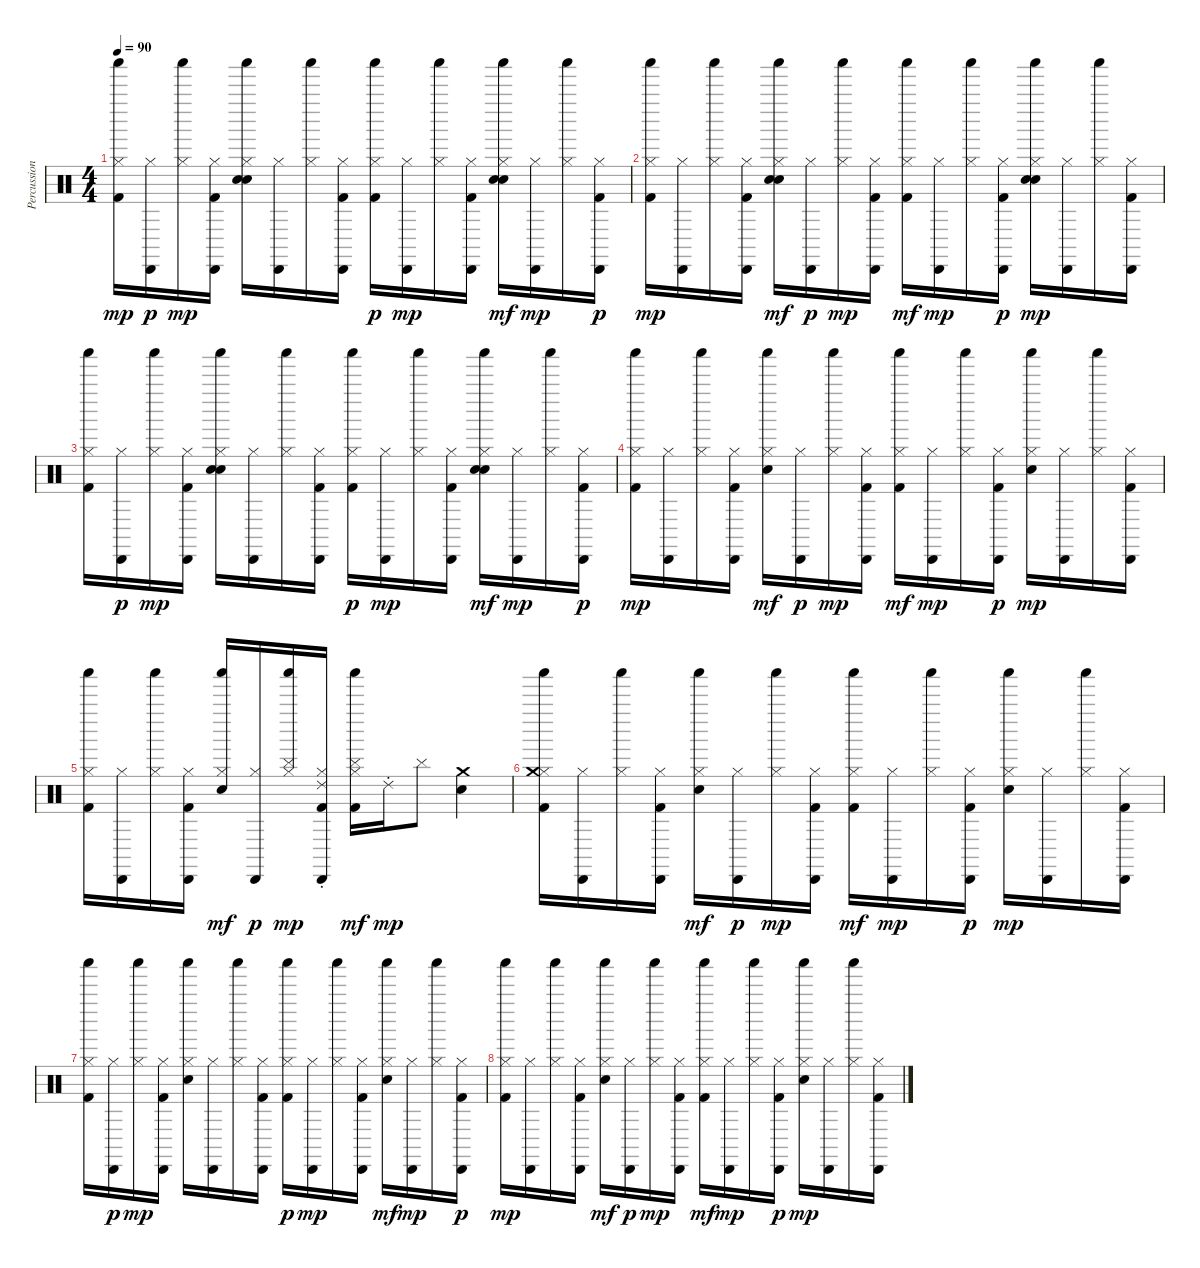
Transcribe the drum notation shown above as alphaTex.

\track ("Percussions" "Percussion") {instrument percussion}
\staff {score}
\articulation defaults
\ts (4 4)
\tempo 90
\clef neutral
\ks c
("Kick (hit) 2" "Hi-Hat (closed)" "Shaker (hit)").16{dy mp} ("Hi-Hat (closed)" "Cabasa (hit)").16{dy p} ("Hi-Hat (closed)" "Shaker (hit)").16{dy mp} ("Kick (hit) 2" "Hi-Hat (closed)" "Cabasa (hit)").16 ("Hand Clap (hit)" "Electric Snare (hit)" "Hi-Hat (closed)" "Shaker (hit)").16 ("Hi-Hat (closed)" "Cabasa (hit)").16 ("Hi-Hat (closed)" "Shaker (hit)").16 ("Kick (hit) 2" "Hi-Hat (closed)" "Cabasa (hit)").16 ("Kick (hit) 2" "Hi-Hat (closed)" "Shaker (hit)").16{dy p} ("Hi-Hat (closed)" "Cabasa (hit)").16{dy mp} ("Hi-Hat (closed)" "Shaker (hit)").16 ("Kick (hit) 2" "Hi-Hat (closed)" "Cabasa (hit)").16 ("Hand Clap (hit)" "Electric Snare (hit)" "Hi-Hat (closed)" "Shaker (hit)").16{dy mf} ("Hi-Hat (closed)" "Cabasa (hit)").16{dy mp} ("Hi-Hat (closed)" "Shaker (hit)").16 ("Kick (hit) 2" "Hi-Hat (closed)" "Cabasa (hit)").16{dy p} |
("Kick (hit) 2" "Hi-Hat (closed)" "Shaker (hit)").16{dy mp} ("Hi-Hat (closed)" "Cabasa (hit)").16 ("Hi-Hat (closed)" "Shaker (hit)").16 ("Kick (hit) 2" "Hi-Hat (closed)" "Cabasa (hit)").16 ("Hand Clap (hit)" "Electric Snare (hit)" "Hi-Hat (closed)" "Shaker (hit)").16{dy mf} ("Hi-Hat (closed)" "Cabasa (hit)").16{dy p} ("Hi-Hat (closed)" "Shaker (hit)").16{dy mp} ("Kick (hit) 2" "Hi-Hat (closed)" "Cabasa (hit)").16 ("Kick (hit) 2" "Hi-Hat (closed)" "Shaker (hit)").16{dy mf} ("Hi-Hat (closed)" "Cabasa (hit)").16{dy mp} ("Hi-Hat (closed)" "Shaker (hit)").16 ("Kick (hit) 2" "Hi-Hat (closed)" "Cabasa (hit)").16{dy p} ("Hand Clap (hit)" "Electric Snare (hit)" "Hi-Hat (closed)" "Shaker (hit)").16{dy mp} ("Hi-Hat (closed)" "Cabasa (hit)").16 ("Hi-Hat (closed)" "Shaker (hit)").16 ("Kick (hit) 2" "Hi-Hat (closed)" "Cabasa (hit)").16 |
("Kick (hit) 2" "Hi-Hat (closed)" "Shaker (hit)").16 ("Hi-Hat (closed)" "Cabasa (hit)").16{dy p} ("Hi-Hat (closed)" "Shaker (hit)").16{dy mp} ("Kick (hit) 2" "Hi-Hat (closed)" "Cabasa (hit)").16 ("Hand Clap (hit)" "Electric Snare (hit)" "Hi-Hat (closed)" "Shaker (hit)").16 ("Hi-Hat (closed)" "Cabasa (hit)").16 ("Hi-Hat (closed)" "Shaker (hit)").16 ("Kick (hit) 2" "Hi-Hat (closed)" "Cabasa (hit)").16 ("Kick (hit) 2" "Hi-Hat (closed)" "Shaker (hit)").16{dy p} ("Hi-Hat (closed)" "Cabasa (hit)").16{dy mp} ("Hi-Hat (closed)" "Shaker (hit)").16 ("Kick (hit) 2" "Hi-Hat (closed)" "Cabasa (hit)").16 ("Hand Clap (hit)" "Electric Snare (hit)" "Hi-Hat (closed)" "Shaker (hit)").16{dy mf} ("Hi-Hat (closed)" "Cabasa (hit)").16{dy mp} ("Hi-Hat (closed)" "Shaker (hit)").16 ("Kick (hit) 2" "Hi-Hat (closed)" "Cabasa (hit)").16{dy p} |
("Kick (hit) 2" "Hi-Hat (closed)" "Shaker (hit)").16{dy mp} ("Hi-Hat (closed)" "Cabasa (hit)").16 ("Hi-Hat (closed)" "Shaker (hit)").16 ("Kick (hit) 2" "Hi-Hat (closed)" "Cabasa (hit)").16 ("Electric Snare (hit)" "Hi-Hat (closed)" "Shaker (hit)").16{dy mf} ("Hi-Hat (closed)" "Cabasa (hit)").16{dy p} ("Hi-Hat (closed)" "Shaker (hit)").16{dy mp} ("Kick (hit) 2" "Hi-Hat (closed)" "Cabasa (hit)").16 ("Kick (hit) 2" "Hi-Hat (closed)" "Shaker (hit)").16{dy mf} ("Hi-Hat (closed)" "Cabasa (hit)").16{dy mp} ("Hi-Hat (closed)" "Shaker (hit)").16 ("Kick (hit) 2" "Hi-Hat (closed)" "Cabasa (hit)").16{dy p} ("Electric Snare (hit)" "Hi-Hat (closed)" "Shaker (hit)").16{dy mp} ("Hi-Hat (closed)" "Cabasa (hit)").16 ("Hi-Hat (closed)" "Shaker (hit)").16 ("Kick (hit) 2" "Hi-Hat (closed)" "Cabasa (hit)").16 |
("Kick (hit) 2" "Hi-Hat (closed)" "Shaker (hit)").16 ("Hi-Hat (closed)" "Cabasa (hit)").16 ("Hi-Hat (closed)" "Shaker (hit)").16 ("Kick (hit) 2" "Hi-Hat (closed)" "Cabasa (hit)").16 ("Electric Snare (hit)" "Hi-Hat (closed)" "Shaker (hit)").16{dy mf} ("Hi-Hat (closed)" "Cabasa (hit)").16{dy p} ("Cymbal (hit)" "Hi-Hat (closed)" "Shaker (hit)").16{dy mp} ("Ride (choke) 2" "Kick (hit) 2" "Hi-Hat (closed)" "Cabasa (hit)").16 ("Cymbal (hit)" "Kick (hit) 2" "Hi-Hat (closed)" "Shaker (hit)").16{dy mf} "Ride (choke) 2".16{dy mp} "Cymbal (hit)".8 ("Electric Snare (hit)" "Crash medium (hit)").4 |
("Kick (hit) 2" "Hi-Hat (closed)" "Crash medium (hit)" "Shaker (hit)").16 ("Hi-Hat (closed)" "Cabasa (hit)").16 ("Hi-Hat (closed)" "Shaker (hit)").16 ("Kick (hit) 2" "Hi-Hat (closed)" "Cabasa (hit)").16 ("Electric Snare (hit)" "Hi-Hat (closed)" "Shaker (hit)").16{dy mf} ("Hi-Hat (closed)" "Cabasa (hit)").16{dy p} ("Hi-Hat (closed)" "Shaker (hit)").16{dy mp} ("Kick (hit) 2" "Hi-Hat (closed)" "Cabasa (hit)").16 ("Kick (hit) 2" "Hi-Hat (closed)" "Shaker (hit)").16{dy mf} ("Hi-Hat (closed)" "Cabasa (hit)").16{dy mp} ("Hi-Hat (closed)" "Shaker (hit)").16 ("Kick (hit) 2" "Hi-Hat (closed)" "Cabasa (hit)").16{dy p} ("Electric Snare (hit)" "Hi-Hat (closed)" "Shaker (hit)").16{dy mp} ("Hi-Hat (closed)" "Cabasa (hit)").16 ("Hi-Hat (closed)" "Shaker (hit)").16 ("Kick (hit) 2" "Hi-Hat (closed)" "Cabasa (hit)").16 |
("Kick (hit) 2" "Hi-Hat (closed)" "Shaker (hit)").16 ("Hi-Hat (closed)" "Cabasa (hit)").16{dy p} ("Hi-Hat (closed)" "Shaker (hit)").16{dy mp} ("Kick (hit) 2" "Hi-Hat (closed)" "Cabasa (hit)").16 ("Electric Snare (hit)" "Hi-Hat (closed)" "Shaker (hit)").16 ("Hi-Hat (closed)" "Cabasa (hit)").16 ("Hi-Hat (closed)" "Shaker (hit)").16 ("Kick (hit) 2" "Hi-Hat (closed)" "Cabasa (hit)").16 ("Kick (hit) 2" "Hi-Hat (closed)" "Shaker (hit)").16{dy p} ("Hi-Hat (closed)" "Cabasa (hit)").16{dy mp} ("Hi-Hat (closed)" "Shaker (hit)").16 ("Kick (hit) 2" "Hi-Hat (closed)" "Cabasa (hit)").16 ("Electric Snare (hit)" "Hi-Hat (closed)" "Shaker (hit)").16{dy mf} ("Hi-Hat (closed)" "Cabasa (hit)").16{dy mp} ("Hi-Hat (closed)" "Shaker (hit)").16 ("Kick (hit) 2" "Hi-Hat (closed)" "Cabasa (hit)").16{dy p} |
("Kick (hit) 2" "Hi-Hat (closed)" "Shaker (hit)").16{dy mp} ("Hi-Hat (closed)" "Cabasa (hit)").16 ("Hi-Hat (closed)" "Shaker (hit)").16 ("Kick (hit) 2" "Hi-Hat (closed)" "Cabasa (hit)").16 ("Electric Snare (hit)" "Hi-Hat (closed)" "Shaker (hit)").16{dy mf} ("Hi-Hat (closed)" "Cabasa (hit)").16{dy p} ("Hi-Hat (closed)" "Shaker (hit)").16{dy mp} ("Kick (hit) 2" "Hi-Hat (closed)" "Cabasa (hit)").16 ("Kick (hit) 2" "Hi-Hat (closed)" "Shaker (hit)").16{dy mf} ("Hi-Hat (closed)" "Cabasa (hit)").16{dy mp} ("Hi-Hat (closed)" "Shaker (hit)").16 ("Kick (hit) 2" "Hi-Hat (closed)" "Cabasa (hit)").16{dy p} ("Electric Snare (hit)" "Hi-Hat (closed)" "Shaker (hit)").16{dy mp} ("Hi-Hat (closed)" "Cabasa (hit)").16 ("Hi-Hat (closed)" "Shaker (hit)").16 ("Kick (hit) 2" "Hi-Hat (closed)" "Cabasa (hit)").16
